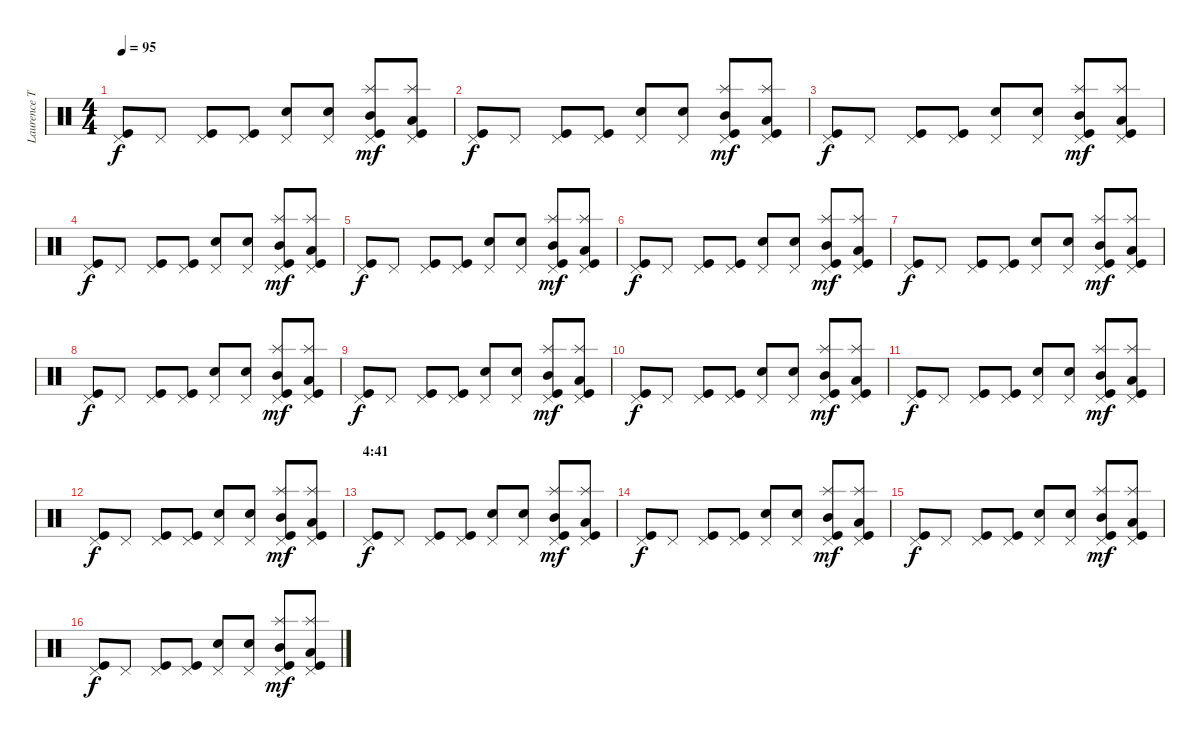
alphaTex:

\track ("Laurence Tolhurst (drums)" "Laurence T") {instrument percussion}
\staff {score}
\articulation defaults
\ts (4 4)
\tempo 95
\clef neutral
\ks c
("Pedal Hi-Hat (hit)" "Kick (hit)").8{dy f} "Pedal Hi-Hat (hit)".8 ("Pedal Hi-Hat (hit)" "Kick (hit)").8 ("Pedal Hi-Hat (hit)" "Kick (hit)").8 ("Pedal Hi-Hat (hit)" "Snare (hit) 2").8 ("Pedal Hi-Hat (hit)" "Snare (hit) 2").8 ("Splash (hit)" "Mid Tom (hit)" "Pedal Hi-Hat (hit)" "Kick (hit)").8{dy mf} ("Splash (hit)" "Low Tom (hit)" "Pedal Hi-Hat (hit)" "Kick (hit)").8 |
("Pedal Hi-Hat (hit)" "Kick (hit)").8{dy f} "Pedal Hi-Hat (hit)".8 ("Pedal Hi-Hat (hit)" "Kick (hit)").8 ("Pedal Hi-Hat (hit)" "Kick (hit)").8 ("Pedal Hi-Hat (hit)" "Snare (hit) 2").8 ("Pedal Hi-Hat (hit)" "Snare (hit) 2").8 ("Splash (hit)" "Mid Tom (hit)" "Pedal Hi-Hat (hit)" "Kick (hit)").8{dy mf} ("Splash (hit)" "Low Tom (hit)" "Pedal Hi-Hat (hit)" "Kick (hit)").8 |
("Pedal Hi-Hat (hit)" "Kick (hit)").8{dy f} "Pedal Hi-Hat (hit)".8 ("Pedal Hi-Hat (hit)" "Kick (hit)").8 ("Pedal Hi-Hat (hit)" "Kick (hit)").8 ("Pedal Hi-Hat (hit)" "Snare (hit) 2").8 ("Pedal Hi-Hat (hit)" "Snare (hit) 2").8 ("Splash (hit)" "Mid Tom (hit)" "Pedal Hi-Hat (hit)" "Kick (hit)").8{dy mf} ("Splash (hit)" "Low Tom (hit)" "Pedal Hi-Hat (hit)" "Kick (hit)").8 |
("Pedal Hi-Hat (hit)" "Kick (hit)").8{dy f} "Pedal Hi-Hat (hit)".8 ("Pedal Hi-Hat (hit)" "Kick (hit)").8 ("Pedal Hi-Hat (hit)" "Kick (hit)").8 ("Pedal Hi-Hat (hit)" "Snare (hit) 2").8 ("Pedal Hi-Hat (hit)" "Snare (hit) 2").8 ("Splash (hit)" "Mid Tom (hit)" "Pedal Hi-Hat (hit)" "Kick (hit)").8{dy mf} ("Splash (hit)" "Low Tom (hit)" "Pedal Hi-Hat (hit)" "Kick (hit)").8 |
("Pedal Hi-Hat (hit)" "Kick (hit)").8{dy f} "Pedal Hi-Hat (hit)".8 ("Pedal Hi-Hat (hit)" "Kick (hit)").8 ("Pedal Hi-Hat (hit)" "Kick (hit)").8 ("Pedal Hi-Hat (hit)" "Snare (hit) 2").8 ("Pedal Hi-Hat (hit)" "Snare (hit) 2").8 ("Splash (hit)" "Mid Tom (hit)" "Pedal Hi-Hat (hit)" "Kick (hit)").8{dy mf} ("Splash (hit)" "Low Tom (hit)" "Pedal Hi-Hat (hit)" "Kick (hit)").8 |
("Pedal Hi-Hat (hit)" "Kick (hit)").8{dy f} "Pedal Hi-Hat (hit)".8 ("Pedal Hi-Hat (hit)" "Kick (hit)").8 ("Pedal Hi-Hat (hit)" "Kick (hit)").8 ("Pedal Hi-Hat (hit)" "Snare (hit) 2").8 ("Pedal Hi-Hat (hit)" "Snare (hit) 2").8 ("Splash (hit)" "Mid Tom (hit)" "Pedal Hi-Hat (hit)" "Kick (hit)").8{dy mf} ("Splash (hit)" "Low Tom (hit)" "Pedal Hi-Hat (hit)" "Kick (hit)").8 |
("Pedal Hi-Hat (hit)" "Kick (hit)").8{dy f} "Pedal Hi-Hat (hit)".8 ("Pedal Hi-Hat (hit)" "Kick (hit)").8 ("Pedal Hi-Hat (hit)" "Kick (hit)").8 ("Pedal Hi-Hat (hit)" "Snare (hit) 2").8 ("Pedal Hi-Hat (hit)" "Snare (hit) 2").8 ("Splash (hit)" "Mid Tom (hit)" "Pedal Hi-Hat (hit)" "Kick (hit)").8{dy mf} ("Splash (hit)" "Low Tom (hit)" "Pedal Hi-Hat (hit)" "Kick (hit)").8 |
("Pedal Hi-Hat (hit)" "Kick (hit)").8{dy f} "Pedal Hi-Hat (hit)".8 ("Pedal Hi-Hat (hit)" "Kick (hit)").8 ("Pedal Hi-Hat (hit)" "Kick (hit)").8 ("Pedal Hi-Hat (hit)" "Snare (hit) 2").8 ("Pedal Hi-Hat (hit)" "Snare (hit) 2").8 ("Splash (hit)" "Mid Tom (hit)" "Pedal Hi-Hat (hit)" "Kick (hit)").8{dy mf} ("Splash (hit)" "Low Tom (hit)" "Pedal Hi-Hat (hit)" "Kick (hit)").8 |
("Pedal Hi-Hat (hit)" "Kick (hit)").8{dy f} "Pedal Hi-Hat (hit)".8 ("Pedal Hi-Hat (hit)" "Kick (hit)").8 ("Pedal Hi-Hat (hit)" "Kick (hit)").8 ("Pedal Hi-Hat (hit)" "Snare (hit) 2").8 ("Pedal Hi-Hat (hit)" "Snare (hit) 2").8 ("Splash (hit)" "Mid Tom (hit)" "Pedal Hi-Hat (hit)" "Kick (hit)").8{dy mf} ("Splash (hit)" "Low Tom (hit)" "Pedal Hi-Hat (hit)" "Kick (hit)").8 |
("Pedal Hi-Hat (hit)" "Kick (hit)").8{dy f} "Pedal Hi-Hat (hit)".8 ("Pedal Hi-Hat (hit)" "Kick (hit)").8 ("Pedal Hi-Hat (hit)" "Kick (hit)").8 ("Pedal Hi-Hat (hit)" "Snare (hit) 2").8 ("Pedal Hi-Hat (hit)" "Snare (hit) 2").8 ("Splash (hit)" "Mid Tom (hit)" "Pedal Hi-Hat (hit)" "Kick (hit)").8{dy mf} ("Splash (hit)" "Low Tom (hit)" "Pedal Hi-Hat (hit)" "Kick (hit)").8 |
("Pedal Hi-Hat (hit)" "Kick (hit)").8{dy f} "Pedal Hi-Hat (hit)".8 ("Pedal Hi-Hat (hit)" "Kick (hit)").8 ("Pedal Hi-Hat (hit)" "Kick (hit)").8 ("Pedal Hi-Hat (hit)" "Snare (hit) 2").8 ("Pedal Hi-Hat (hit)" "Snare (hit) 2").8 ("Splash (hit)" "Mid Tom (hit)" "Pedal Hi-Hat (hit)" "Kick (hit)").8{dy mf} ("Splash (hit)" "Low Tom (hit)" "Pedal Hi-Hat (hit)" "Kick (hit)").8 |
("Pedal Hi-Hat (hit)" "Kick (hit)").8{dy f} "Pedal Hi-Hat (hit)".8 ("Pedal Hi-Hat (hit)" "Kick (hit)").8 ("Pedal Hi-Hat (hit)" "Kick (hit)").8 ("Pedal Hi-Hat (hit)" "Snare (hit) 2").8 ("Pedal Hi-Hat (hit)" "Snare (hit) 2").8 ("Splash (hit)" "Mid Tom (hit)" "Pedal Hi-Hat (hit)" "Kick (hit)").8{dy mf} ("Splash (hit)" "Low Tom (hit)" "Pedal Hi-Hat (hit)" "Kick (hit)").8 |
\section ("" "4:41")
("Pedal Hi-Hat (hit)" "Kick (hit)").8{dy f} "Pedal Hi-Hat (hit)".8 ("Pedal Hi-Hat (hit)" "Kick (hit)").8 ("Pedal Hi-Hat (hit)" "Kick (hit)").8 ("Pedal Hi-Hat (hit)" "Snare (hit) 2").8 ("Pedal Hi-Hat (hit)" "Snare (hit) 2").8 ("Splash (hit)" "Mid Tom (hit)" "Pedal Hi-Hat (hit)" "Kick (hit)").8{dy mf} ("Splash (hit)" "Low Tom (hit)" "Pedal Hi-Hat (hit)" "Kick (hit)").8 |
("Pedal Hi-Hat (hit)" "Kick (hit)").8{dy f} "Pedal Hi-Hat (hit)".8 ("Pedal Hi-Hat (hit)" "Kick (hit)").8 ("Pedal Hi-Hat (hit)" "Kick (hit)").8 ("Pedal Hi-Hat (hit)" "Snare (hit) 2").8 ("Pedal Hi-Hat (hit)" "Snare (hit) 2").8 ("Splash (hit)" "Mid Tom (hit)" "Pedal Hi-Hat (hit)" "Kick (hit)").8{dy mf} ("Splash (hit)" "Low Tom (hit)" "Pedal Hi-Hat (hit)" "Kick (hit)").8 |
("Pedal Hi-Hat (hit)" "Kick (hit)").8{dy f} "Pedal Hi-Hat (hit)".8 ("Pedal Hi-Hat (hit)" "Kick (hit)").8 ("Pedal Hi-Hat (hit)" "Kick (hit)").8 ("Pedal Hi-Hat (hit)" "Snare (hit) 2").8 ("Pedal Hi-Hat (hit)" "Snare (hit) 2").8 ("Splash (hit)" "Mid Tom (hit)" "Pedal Hi-Hat (hit)" "Kick (hit)").8{dy mf} ("Splash (hit)" "Low Tom (hit)" "Pedal Hi-Hat (hit)" "Kick (hit)").8 |
("Pedal Hi-Hat (hit)" "Kick (hit)").8{dy f} "Pedal Hi-Hat (hit)".8 ("Pedal Hi-Hat (hit)" "Kick (hit)").8 ("Pedal Hi-Hat (hit)" "Kick (hit)").8 ("Pedal Hi-Hat (hit)" "Snare (hit) 2").8 ("Pedal Hi-Hat (hit)" "Snare (hit) 2").8 ("Splash (hit)" "Mid Tom (hit)" "Pedal Hi-Hat (hit)" "Kick (hit)").8{dy mf} ("Splash (hit)" "Low Tom (hit)" "Pedal Hi-Hat (hit)" "Kick (hit)").8
